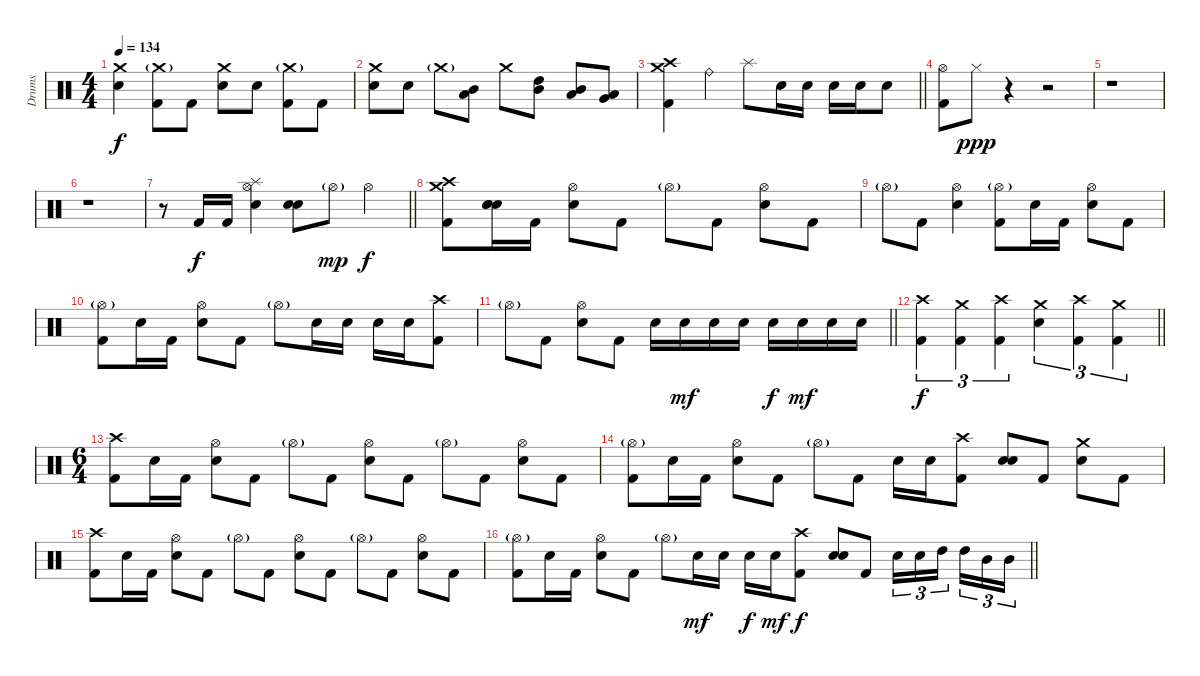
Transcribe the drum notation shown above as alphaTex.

\track ("Drums" "Drums") {instrument percussion}
\staff {score}
\articulation defaults
\ts (4 4)
\tempo 134
\clef neutral
\ks c
("Crash medium (hit)" "Snare (hit) 2").4{dy f} ("Crash medium (hit)"{g} "Kick (hit) 2").8 "Kick (hit) 2".8 ("Crash medium (hit)" "Snare (hit) 2").8 "Snare (hit) 2".8 ("Crash medium (hit)"{g} "Kick (hit) 2").8 "Kick (hit) 2".8 |
("Crash medium (hit)" "Snare (hit) 2").8 "Snare (hit) 2".8 "Crash medium (hit)"{g}.8 ("Mid Tom (hit)" "Low Tom (hit)").8 "Crash medium (hit)".8 ("High Tom (hit)" "Mid Tom (hit)").8 ("Mid Tom (hit)" "Low Tom (hit)").8 ("Low Tom (hit)" "Very Low Tom (hit)").8 |
\barLineRight lightlight
("Crash high (hit)" "Crash medium (hit)" "Kick (hit) 2").4 "Ride (bell)".4 "Splash (hit)".8 "Snare (hit) 2".16 "Snare (hit) 2".16 "Snare (hit) 2".16 "Snare (hit) 2".16 "Snare (hit) 2".8 |
("Hi-Hat (open)" "Kick (hit) 2").8 "Hi-Hat (closed)".8{dy ppp} r.4 r.2 |
r.1 |
r.1 |
\barLineRight lightlight
r.8 "Kick (hit) 2".16{dy f} "Kick (hit) 2".16 ("Splash (hit)" "Hi-Hat (open)" "Snare (hit) 2").4 ("Snare (hit)" "Snare (hit)").8 "Hi-Hat (open)"{g}.8{dy mp} "Hi-Hat (open)".4{dy f} |
("Crash high (hit)" "Crash medium (hit)" "Kick (hit) 2").8 ("Snare (hit)" "Snare (hit)" "Snare (hit)").16 "Kick (hit) 2".16 ("Hi-Hat (open)" "Snare (hit) 2").8 "Kick (hit) 2".8 "Hi-Hat (open)"{g}.8 "Kick (hit) 2".8 ("Hi-Hat (open)" "Snare (hit) 2").8 "Kick (hit) 2".8 |
"Hi-Hat (open)"{g}.8 "Kick (hit) 2".8 ("Hi-Hat (open)" "Snare (hit) 2").4 ("Hi-Hat (open)"{g} "Kick (hit) 2").8 "Snare (hit)".16 "Kick (hit) 2".16 ("Hi-Hat (open)" "Snare (hit) 2").8 "Kick (hit) 2".8 |
("Hi-Hat (open)"{g} "Kick (hit) 2").8 "Snare (hit)".16 "Kick (hit) 2".16 ("Hi-Hat (open)" "Snare (hit) 2").8 "Kick (hit) 2".8 "Hi-Hat (open)"{g}.8 "Snare (hit) 2".16 "Snare (hit) 2".16 "Snare (hit) 2".16 "Snare (hit) 2".16 ("Crash high (hit)" "Kick (hit) 2").8 |
\barLineRight lightlight "Hi-Hat (open)"{g}.8 "Kick (hit) 2".8
("Hi-Hat (open)" "Snare (hit) 2").8 "Kick (hit) 2".8 "Snare (hit) 2".16 "Snare (hit) 2".16{dy mf} "Snare (hit) 2".16 "Snare (hit) 2".16 "Snare (hit) 2".16{dy f} "Snare (hit) 2".16{dy mf} "Snare (hit) 2".16 "Snare (hit) 2".16 |
\barLineRight lightlight
("Crash high (hit)" "Kick (hit) 2").4{tu (3 2) dy f} ("Crash medium (hit)" "Kick (hit) 2").4{tu (3 2)} ("Crash high (hit)" "Kick (hit) 2").4{tu (3 2)} ("Crash medium (hit)" "Snare (hit) 2").4{tu (3 2)} ("Crash high (hit)" "Kick (hit) 2").4{tu (3 2)} ("Crash medium (hit)" "Kick (hit) 2").4{tu (3 2)} |
\ts (6 4)
("Crash high (hit)" "Kick (hit) 2").8 "Snare (hit)".16 "Kick (hit) 2".16 ("Hi-Hat (open)" "Snare (hit) 2").8 "Kick (hit) 2".8 "Hi-Hat (open)"{g}.8 "Kick (hit) 2".8 ("Hi-Hat (open)" "Snare (hit) 2").8 "Kick (hit) 2".8 "Hi-Hat (open)"{g}.8 "Kick (hit) 2".8 ("Hi-Hat (open)" "Snare (hit) 2").8 "Kick (hit) 2".8 |
("Hi-Hat (open)"{g} "Kick (hit) 2").8 "Snare (hit)".16 "Kick (hit) 2".16 ("Hi-Hat (open)" "Snare (hit) 2").8 "Kick (hit) 2".8 "Hi-Hat (open)"{g}.8 "Kick (hit) 2".8 "Snare (hit) 2".16 "Snare (hit) 2".16 ("Crash high (hit)" "Kick (hit) 2").8 ("Snare (hit)" "Snare (hit)").8 "Kick (hit) 2".8 ("Crash medium (hit)" "Snare (hit) 2").8 "Kick (hit) 2".8 |
("Crash high (hit)" "Kick (hit) 2").8 "Snare (hit)".16 "Kick (hit) 2".16 ("Hi-Hat (open)" "Snare (hit) 2").8 "Kick (hit) 2".8 "Hi-Hat (open)"{g}.8 "Kick (hit) 2".8 ("Hi-Hat (open)" "Snare (hit) 2").8 "Kick (hit) 2".8 "Hi-Hat (open)"{g}.8 "Kick (hit) 2".8 ("Hi-Hat (open)" "Snare (hit) 2").8 "Kick (hit) 2".8 |
\barLineRight lightlight
("Hi-Hat (open)"{g} "Kick (hit) 2").8 "Snare (hit)".16 "Kick (hit) 2".16 ("Hi-Hat (open)" "Snare (hit) 2").8 "Kick (hit) 2".8 "Hi-Hat (open)"{g}.8 "Snare (hit) 2".16{dy mf} "Snare (hit) 2".16 "Snare (hit) 2".16{dy f} "Snare (hit) 2".16{dy mf} ("Crash high (hit)" "Kick (hit) 2").8{dy f} ("Snare (hit)" "Snare (hit)").8 "Kick (hit) 2".8 "Snare (hit) 2".16{tu (3 2)} "Snare (hit) 2".16{tu (3 2)} "High Tom (hit)".16{tu (3 2)} "High Tom (hit)".16{tu (3 2)} "Mid Tom (hit)".16{tu (3 2)} "Mid Tom (hit)".16{tu (3 2)}
